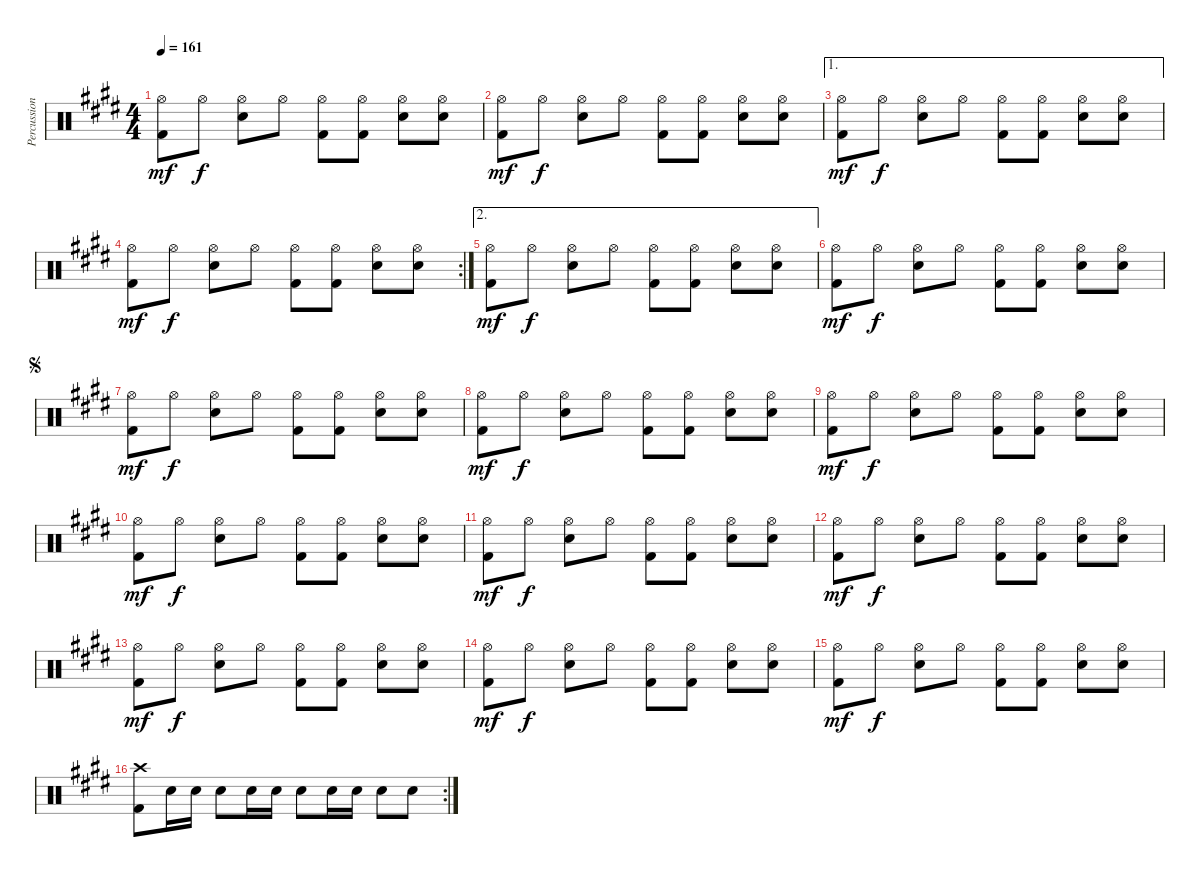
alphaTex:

\track ("Percussion" "Percussion") {instrument percussion}
\staff {score}
\articulation defaults
\ts (4 4)
\tempo 161
\clef neutral
\ks e
("Hi-Hat (open)" "Kick (hit) 2").8{dy mf} "Hi-Hat (open)".8{dy f} ("Hi-Hat (open)" "Snare (hit) 2").8 "Hi-Hat (open)".8 ("Hi-Hat (open)" "Kick (hit) 2").8 ("Hi-Hat (open)" "Kick (hit) 2").8 ("Hi-Hat (open)" "Snare (hit) 2").8 ("Hi-Hat (open)" "Snare (hit) 2").8 |
("Hi-Hat (open)" "Kick (hit) 2").8{dy mf} "Hi-Hat (open)".8{dy f} ("Hi-Hat (open)" "Snare (hit) 2").8 "Hi-Hat (open)".8 ("Hi-Hat (open)" "Kick (hit) 2").8 ("Hi-Hat (open)" "Kick (hit) 2").8 ("Hi-Hat (open)" "Snare (hit) 2").8 ("Hi-Hat (open)" "Snare (hit) 2").8 |
\ae 1
("Hi-Hat (open)" "Kick (hit) 2").8{dy mf} "Hi-Hat (open)".8{dy f} ("Hi-Hat (open)" "Snare (hit) 2").8 "Hi-Hat (open)".8 ("Hi-Hat (open)" "Kick (hit) 2").8 ("Hi-Hat (open)" "Kick (hit) 2").8 ("Hi-Hat (open)" "Snare (hit) 2").8 ("Hi-Hat (open)" "Snare (hit) 2").8 |
\rc 2
("Hi-Hat (open)" "Kick (hit) 2").8{dy mf} "Hi-Hat (open)".8{dy f} ("Hi-Hat (open)" "Snare (hit) 2").8 "Hi-Hat (open)".8 ("Hi-Hat (open)" "Kick (hit) 2").8 ("Hi-Hat (open)" "Kick (hit) 2").8 ("Hi-Hat (open)" "Snare (hit) 2").8 ("Hi-Hat (open)" "Snare (hit) 2").8 |
\ae 2
("Hi-Hat (open)" "Kick (hit) 2").8{dy mf} "Hi-Hat (open)".8{dy f} ("Hi-Hat (open)" "Snare (hit) 2").8 "Hi-Hat (open)".8 ("Hi-Hat (open)" "Kick (hit) 2").8 ("Hi-Hat (open)" "Kick (hit) 2").8 ("Hi-Hat (open)" "Snare (hit) 2").8 ("Hi-Hat (open)" "Snare (hit) 2").8 |
("Hi-Hat (open)" "Kick (hit) 2").8{dy mf} "Hi-Hat (open)".8{dy f} ("Hi-Hat (open)" "Snare (hit) 2").8 "Hi-Hat (open)".8 ("Hi-Hat (open)" "Kick (hit) 2").8 ("Hi-Hat (open)" "Kick (hit) 2").8 ("Hi-Hat (open)" "Snare (hit) 2").8 ("Hi-Hat (open)" "Snare (hit) 2").8 |
\jump segno
("Hi-Hat (open)" "Kick (hit) 2").8{dy mf} "Hi-Hat (open)".8{dy f} ("Hi-Hat (open)" "Snare (hit) 2").8 "Hi-Hat (open)".8 ("Hi-Hat (open)" "Kick (hit) 2").8 ("Hi-Hat (open)" "Kick (hit) 2").8 ("Hi-Hat (open)" "Snare (hit) 2").8 ("Hi-Hat (open)" "Snare (hit) 2").8 |
("Hi-Hat (open)" "Kick (hit) 2").8{dy mf} "Hi-Hat (open)".8{dy f} ("Hi-Hat (open)" "Snare (hit) 2").8 "Hi-Hat (open)".8 ("Hi-Hat (open)" "Kick (hit) 2").8 ("Hi-Hat (open)" "Kick (hit) 2").8 ("Hi-Hat (open)" "Snare (hit) 2").8 ("Hi-Hat (open)" "Snare (hit) 2").8 |
("Hi-Hat (open)" "Kick (hit) 2").8{dy mf} "Hi-Hat (open)".8{dy f} ("Hi-Hat (open)" "Snare (hit) 2").8 "Hi-Hat (open)".8 ("Hi-Hat (open)" "Kick (hit) 2").8 ("Hi-Hat (open)" "Kick (hit) 2").8 ("Hi-Hat (open)" "Snare (hit) 2").8 ("Hi-Hat (open)" "Snare (hit) 2").8 |
("Hi-Hat (open)" "Kick (hit) 2").8{dy mf} "Hi-Hat (open)".8{dy f} ("Hi-Hat (open)" "Snare (hit) 2").8 "Hi-Hat (open)".8 ("Hi-Hat (open)" "Kick (hit) 2").8 ("Hi-Hat (open)" "Kick (hit) 2").8 ("Hi-Hat (open)" "Snare (hit) 2").8 ("Hi-Hat (open)" "Snare (hit) 2").8 |
("Hi-Hat (open)" "Kick (hit) 2").8{dy mf} "Hi-Hat (open)".8{dy f} ("Hi-Hat (open)" "Snare (hit) 2").8 "Hi-Hat (open)".8 ("Hi-Hat (open)" "Kick (hit) 2").8 ("Hi-Hat (open)" "Kick (hit) 2").8 ("Hi-Hat (open)" "Snare (hit) 2").8 ("Hi-Hat (open)" "Snare (hit) 2").8 |
("Hi-Hat (open)" "Kick (hit) 2").8{dy mf} "Hi-Hat (open)".8{dy f} ("Hi-Hat (open)" "Snare (hit) 2").8 "Hi-Hat (open)".8 ("Hi-Hat (open)" "Kick (hit) 2").8 ("Hi-Hat (open)" "Kick (hit) 2").8 ("Hi-Hat (open)" "Snare (hit) 2").8 ("Hi-Hat (open)" "Snare (hit) 2").8 |
("Hi-Hat (open)" "Kick (hit) 2").8{dy mf} "Hi-Hat (open)".8{dy f} ("Hi-Hat (open)" "Snare (hit) 2").8 "Hi-Hat (open)".8 ("Hi-Hat (open)" "Kick (hit) 2").8 ("Hi-Hat (open)" "Kick (hit) 2").8 ("Hi-Hat (open)" "Snare (hit) 2").8 ("Hi-Hat (open)" "Snare (hit) 2").8 |
("Hi-Hat (open)" "Kick (hit) 2").8{dy mf} "Hi-Hat (open)".8{dy f} ("Hi-Hat (open)" "Snare (hit) 2").8 "Hi-Hat (open)".8 ("Hi-Hat (open)" "Kick (hit) 2").8 ("Hi-Hat (open)" "Kick (hit) 2").8 ("Hi-Hat (open)" "Snare (hit) 2").8 ("Hi-Hat (open)" "Snare (hit) 2").8 |
("Hi-Hat (open)" "Kick (hit) 2").8{dy mf} "Hi-Hat (open)".8{dy f} ("Hi-Hat (open)" "Snare (hit) 2").8 "Hi-Hat (open)".8 ("Hi-Hat (open)" "Kick (hit) 2").8 ("Hi-Hat (open)" "Kick (hit) 2").8 ("Hi-Hat (open)" "Snare (hit) 2").8 ("Hi-Hat (open)" "Snare (hit) 2").8 |
\rc 2
("Crash high (hit)" "Kick (hit) 2").8 "Snare (hit) 2".16 "Snare (hit) 2".16 "Snare (hit) 2".8 "Snare (hit) 2".16 "Snare (hit) 2".16 "Snare (hit) 2".8 "Snare (hit) 2".16 "Snare (hit) 2".16 "Snare (hit) 2".8 "Snare (hit) 2".8
